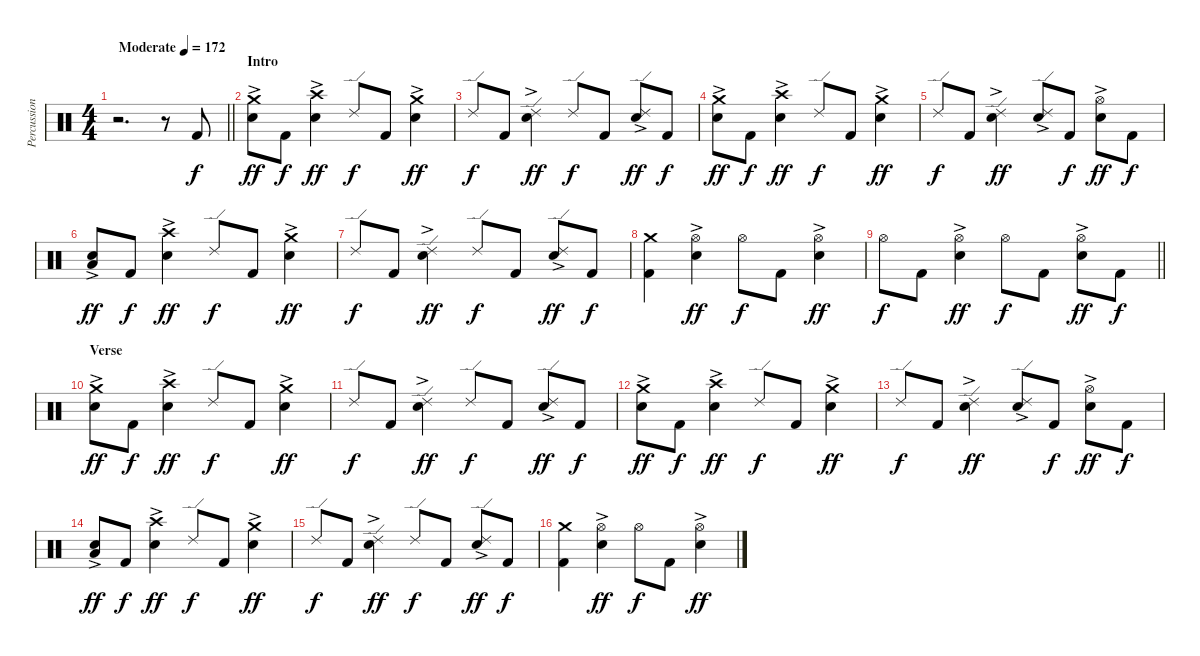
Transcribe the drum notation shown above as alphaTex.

\track ("Percussion" "Percussion") {instrument percussion}
\staff {score}
\articulation defaults
\ts (4 4)
\tempo (172 "Moderate")
\clef neutral
\barLineRight lightlight
\ks c
r.2{d dy f} r.8 "Kick (hit) 2".8 |
\section ("" "Intro")
("Crash medium (hit)" "Electric Snare (hit)"{ac}).8{dy ff} "Kick (hit) 2".8{dy f} ("Crash high (hit)" "Electric Snare (hit)"{ac}).4{dy ff} "Ride (edge) 2".8{dy f} "Kick (hit) 2".8 ("Crash medium (hit)" "Electric Snare (hit)"{ac}).4{dy ff} |
"Ride (edge) 2".8{dy f} "Kick (hit) 2".8 ("Ride (edge) 2" "Electric Snare (hit)"{ac}).4{dy ff} "Ride (edge) 2".8{dy f} "Kick (hit) 2".8 ("Ride (edge) 2" "Electric Snare (hit)"{ac}).8{dy ff} "Kick (hit) 2".8{dy f} |
("Crash medium (hit)" "Electric Snare (hit)"{ac}).8{dy ff} "Kick (hit) 2".8{dy f} ("Crash high (hit)" "Electric Snare (hit)"{ac}).4{dy ff} "Ride (edge) 2".8{dy f} "Kick (hit) 2".8 ("Crash medium (hit)" "Electric Snare (hit)"{ac}).4{dy ff} |
"Ride (edge) 2".8{dy f} "Kick (hit) 2".8 ("Ride (edge) 2" "Electric Snare (hit)"{ac}).4{dy ff} ("Ride (edge) 2" "Electric Snare (hit)"{ac}).8 "Kick (hit) 2".8{dy f} ("Hi-Hat (open)" "Electric Snare (hit)"{ac}).8{dy ff} "Kick (hit) 2".8{dy f} |
("Low Tom (hit)"{ac} "Electric Snare (hit)"{ac}).8{bu 120 dy ff} "Kick (hit) 2".8{dy f} ("Crash high (hit)" "Electric Snare (hit)"{ac}).4{dy ff} "Ride (edge) 2".8{dy f} "Kick (hit) 2".8 ("Crash medium (hit)" "Electric Snare (hit)"{ac}).4{dy ff} |
"Ride (edge) 2".8{dy f} "Kick (hit) 2".8 ("Ride (edge) 2" "Electric Snare (hit)"{ac}).4{dy ff} "Ride (edge) 2".8{dy f} "Kick (hit) 2".8 ("Ride (edge) 2" "Electric Snare (hit)"{ac}).8{dy ff} "Kick (hit) 2".8{dy f} |
("Crash medium (hit)" "Kick (hit) 2").4 ("Hi-Hat (open)" "Electric Snare (hit)"{ac}).4{dy ff} "Hi-Hat (open)".8{dy f} "Kick (hit) 2".8 ("Hi-Hat (open)" "Electric Snare (hit)"{ac}).4{dy ff} |
\barLineRight lightlight "Hi-Hat (open)".8{dy f} "Kick (hit) 2".8
("Hi-Hat (open)" "Electric Snare (hit)"{ac}).4{dy ff} "Hi-Hat (open)".8{dy f} "Kick (hit) 2".8 ("Hi-Hat (open)" "Electric Snare (hit)"{ac}).8{dy ff} "Kick (hit) 2".8{dy f} |
\section ("" "Verse")
("Crash medium (hit)" "Electric Snare (hit)"{ac}).8{dy ff} "Kick (hit) 2".8{dy f} ("Crash high (hit)" "Electric Snare (hit)"{ac}).4{dy ff} "Ride (edge) 2".8{dy f} "Kick (hit) 2".8 ("Crash medium (hit)" "Electric Snare (hit)"{ac}).4{dy ff} |
"Ride (edge) 2".8{dy f} "Kick (hit) 2".8 ("Ride (edge) 2" "Electric Snare (hit)"{ac}).4{dy ff} "Ride (edge) 2".8{dy f} "Kick (hit) 2".8 ("Ride (edge) 2" "Electric Snare (hit)"{ac}).8{dy ff} "Kick (hit) 2".8{dy f} |
("Crash medium (hit)" "Electric Snare (hit)"{ac}).8{dy ff} "Kick (hit) 2".8{dy f} ("Crash high (hit)" "Electric Snare (hit)"{ac}).4{dy ff} "Ride (edge) 2".8{dy f} "Kick (hit) 2".8 ("Crash medium (hit)" "Electric Snare (hit)"{ac}).4{dy ff} |
"Ride (edge) 2".8{dy f} "Kick (hit) 2".8 ("Ride (edge) 2" "Electric Snare (hit)"{ac}).4{dy ff} ("Ride (edge) 2" "Electric Snare (hit)"{ac}).8 "Kick (hit) 2".8{dy f} ("Hi-Hat (open)" "Electric Snare (hit)"{ac}).8{dy ff} "Kick (hit) 2".8{dy f} |
("Low Tom (hit)"{ac} "Electric Snare (hit)"{ac}).8{dy ff} "Kick (hit) 2".8{dy f} ("Crash high (hit)" "Electric Snare (hit)"{ac}).4{dy ff} "Ride (edge) 2".8{dy f} "Kick (hit) 2".8 ("Crash medium (hit)" "Electric Snare (hit)"{ac}).4{dy ff} |
"Ride (edge) 2".8{dy f} "Kick (hit) 2".8 ("Ride (edge) 2" "Electric Snare (hit)"{ac}).4{dy ff} "Ride (edge) 2".8{dy f} "Kick (hit) 2".8 ("Ride (edge) 2" "Electric Snare (hit)"{ac}).8{dy ff} "Kick (hit) 2".8{dy f} |
("Crash medium (hit)" "Kick (hit) 2").4 ("Hi-Hat (open)" "Electric Snare (hit)"{ac}).4{dy ff} "Hi-Hat (open)".8{dy f} "Kick (hit) 2".8 ("Hi-Hat (open)" "Electric Snare (hit)"{ac}).4{dy ff}
